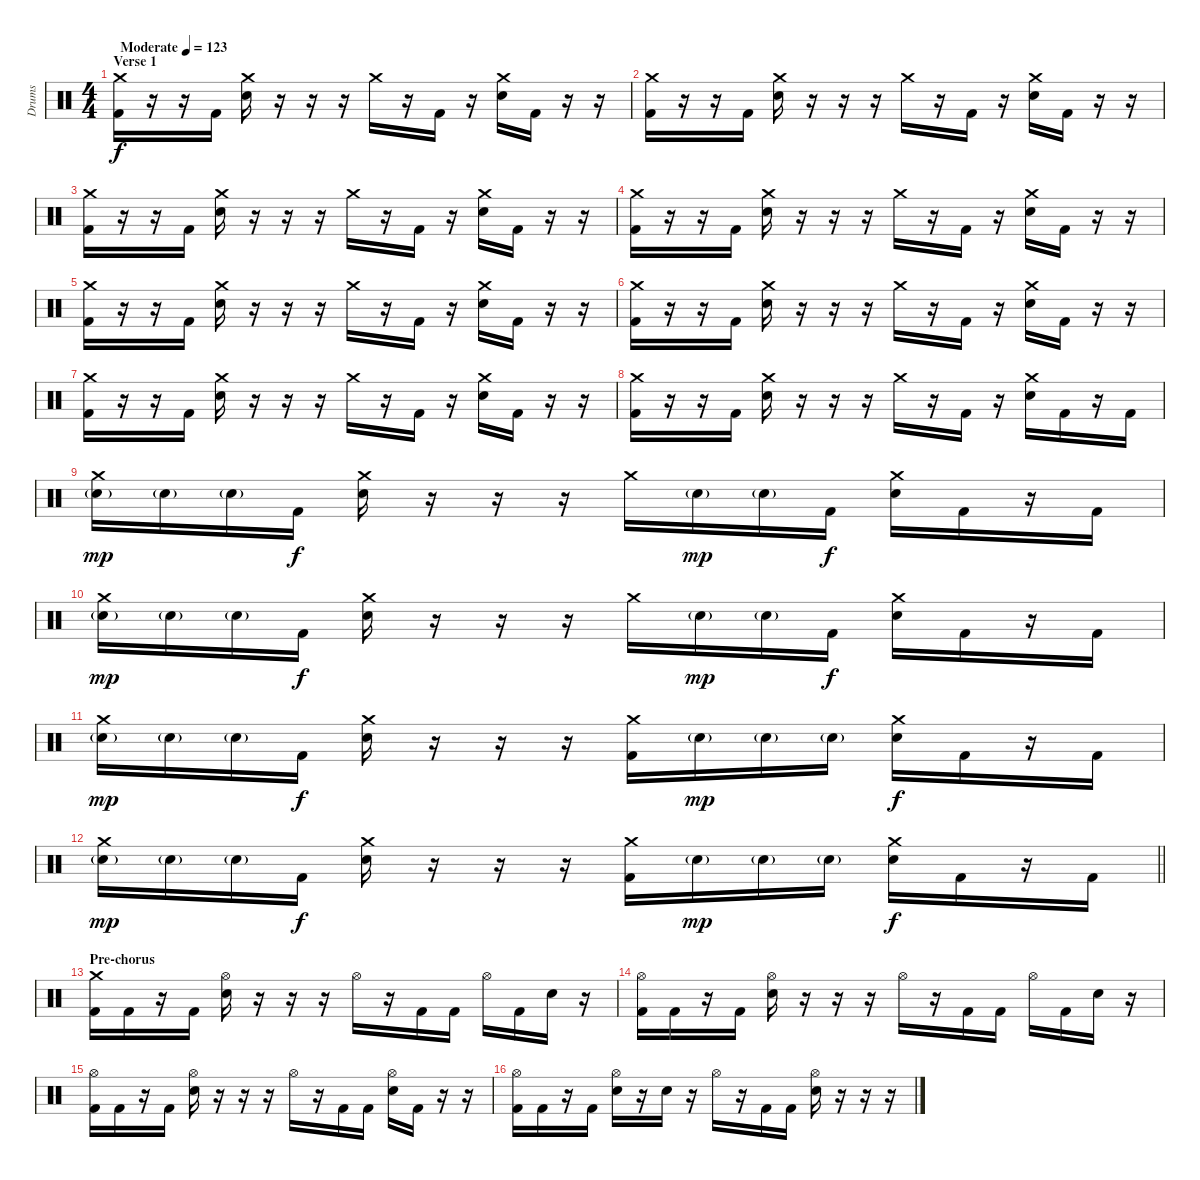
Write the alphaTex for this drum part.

\track ("Drums" "Drums") {instrument percussion}
\staff {score}
\articulation defaults
\ts (4 4)
\section ("" "Verse 1")
\tempo (123 "Moderate")
\clef neutral
\ks c
("Crash medium (hit)" "Kick (hit) 2").16{dy f} r.16 r.16 "Kick (hit) 2".16 ("Crash medium (hit)" "Electric Snare (hit)").16 r.16 r.16 r.16 "Crash medium (hit)".16 r.16 "Kick (hit) 2".16 r.16 ("Crash medium (hit)" "Electric Snare (hit)").16 "Kick (hit) 2".16 r.16 r.16 |
("Crash medium (hit)" "Kick (hit) 2").16 r.16 r.16 "Kick (hit) 2".16 ("Crash medium (hit)" "Electric Snare (hit)").16 r.16 r.16 r.16 "Crash medium (hit)".16 r.16 "Kick (hit) 2".16 r.16 ("Crash medium (hit)" "Electric Snare (hit)").16 "Kick (hit) 2".16 r.16 r.16 |
("Crash medium (hit)" "Kick (hit) 2").16 r.16 r.16 "Kick (hit) 2".16 ("Crash medium (hit)" "Electric Snare (hit)").16 r.16 r.16 r.16 "Crash medium (hit)".16 r.16 "Kick (hit) 2".16 r.16 ("Crash medium (hit)" "Electric Snare (hit)").16 "Kick (hit) 2".16 r.16 r.16 |
("Crash medium (hit)" "Kick (hit) 2").16 r.16 r.16 "Kick (hit) 2".16 ("Crash medium (hit)" "Electric Snare (hit)").16 r.16 r.16 r.16 "Crash medium (hit)".16 r.16 "Kick (hit) 2".16 r.16 ("Crash medium (hit)" "Electric Snare (hit)").16 "Kick (hit) 2".16 r.16 r.16 |
("Crash medium (hit)" "Kick (hit) 2").16 r.16 r.16 "Kick (hit) 2".16 ("Crash medium (hit)" "Electric Snare (hit)").16 r.16 r.16 r.16 "Crash medium (hit)".16 r.16 "Kick (hit) 2".16 r.16 ("Crash medium (hit)" "Electric Snare (hit)").16 "Kick (hit) 2".16 r.16 r.16 |
("Crash medium (hit)" "Kick (hit) 2").16 r.16 r.16 "Kick (hit) 2".16 ("Crash medium (hit)" "Electric Snare (hit)").16 r.16 r.16 r.16 "Crash medium (hit)".16 r.16 "Kick (hit) 2".16 r.16 ("Crash medium (hit)" "Electric Snare (hit)").16 "Kick (hit) 2".16 r.16 r.16 |
("Crash medium (hit)" "Kick (hit) 2").16 r.16 r.16 "Kick (hit) 2".16 ("Crash medium (hit)" "Electric Snare (hit)").16 r.16 r.16 r.16 "Crash medium (hit)".16 r.16 "Kick (hit) 2".16 r.16 ("Crash medium (hit)" "Electric Snare (hit)").16 "Kick (hit) 2".16 r.16 r.16 |
("Crash medium (hit)" "Kick (hit) 2").16 r.16 r.16 "Kick (hit) 2".16 ("Crash medium (hit)" "Electric Snare (hit)").16 r.16 r.16 r.16 "Crash medium (hit)".16 r.16 "Kick (hit) 2".16 r.16 ("Crash medium (hit)" "Electric Snare (hit)").16 "Kick (hit) 2".16 r.16 "Kick (hit) 2".16 |
("Crash medium (hit)" "Electric Snare (hit)"{g}).16{dy mp} "Electric Snare (hit)"{g}.16 "Electric Snare (hit)"{g}.16 "Kick (hit) 2".16{dy f} ("Crash medium (hit)" "Electric Snare (hit)").16 r.16 r.16 r.16 "Crash medium (hit)".16 "Electric Snare (hit)"{g}.16{dy mp} "Electric Snare (hit)"{g}.16 "Kick (hit) 2".16{dy f} ("Crash medium (hit)" "Electric Snare (hit)").16 "Kick (hit) 2".16 r.16 "Kick (hit) 2".16 |
("Crash medium (hit)" "Electric Snare (hit)"{g}).16{dy mp} "Electric Snare (hit)"{g}.16 "Electric Snare (hit)"{g}.16 "Kick (hit) 2".16{dy f} ("Crash medium (hit)" "Electric Snare (hit)").16 r.16 r.16 r.16 "Crash medium (hit)".16 "Electric Snare (hit)"{g}.16{dy mp} "Electric Snare (hit)"{g}.16 "Kick (hit) 2".16{dy f} ("Crash medium (hit)" "Electric Snare (hit)").16 "Kick (hit) 2".16 r.16 "Kick (hit) 2".16 |
("Crash medium (hit)" "Electric Snare (hit)"{g}).16{dy mp} "Electric Snare (hit)"{g}.16 "Electric Snare (hit)"{g}.16 "Kick (hit) 2".16{dy f} ("Crash medium (hit)" "Electric Snare (hit)").16 r.16 r.16 r.16 ("Crash medium (hit)" "Kick (hit) 2").16 "Electric Snare (hit)"{g}.16{dy mp} "Electric Snare (hit)"{g}.16 "Electric Snare (hit)"{g}.16 ("Crash medium (hit)" "Electric Snare (hit)").16{dy f} "Kick (hit) 2".16 r.16 "Kick (hit) 2".16 |
\barLineRight lightlight
("Crash medium (hit)" "Electric Snare (hit)"{g}).16{dy mp} "Electric Snare (hit)"{g}.16 "Electric Snare (hit)"{g}.16 "Kick (hit) 2".16{dy f} ("Crash medium (hit)" "Electric Snare (hit)").16 r.16 r.16 r.16 ("Crash medium (hit)" "Kick (hit) 2").16 "Electric Snare (hit)"{g}.16{dy mp} "Electric Snare (hit)"{g}.16 "Electric Snare (hit)"{g}.16 ("Crash medium (hit)" "Electric Snare (hit)").16{dy f} "Kick (hit) 2".16 r.16 "Kick (hit) 2".16 |
\section ("" "Pre-chorus")
("Crash medium (hit)" "Kick (hit) 2").16 "Kick (hit) 2".16 r.16 "Kick (hit) 2".16 ("Hi-Hat (open)" "Electric Snare (hit)").16 r.16 r.16 r.16 "Hi-Hat (open)".16 r.16 "Kick (hit) 2".16 "Kick (hit) 2".16 "Hi-Hat (open)".16 "Kick (hit) 2".16 "Electric Snare (hit)".16 r.16 |
("Hi-Hat (open)" "Kick (hit) 2").16 "Kick (hit) 2".16 r.16 "Kick (hit) 2".16 ("Hi-Hat (open)" "Electric Snare (hit)").16 r.16 r.16 r.16 "Hi-Hat (open)".16 r.16 "Kick (hit) 2".16 "Kick (hit) 2".16 "Hi-Hat (open)".16 "Kick (hit) 2".16 "Electric Snare (hit)".16 r.16 |
("Hi-Hat (open)" "Kick (hit) 2").16 "Kick (hit) 2".16 r.16 "Kick (hit) 2".16 ("Hi-Hat (open)" "Electric Snare (hit)").16 r.16 r.16 r.16 "Hi-Hat (open)".16 r.16 "Kick (hit) 2".16 "Kick (hit) 2".16 ("Hi-Hat (open)" "Electric Snare (hit)").16 "Kick (hit) 2".16 r.16 r.16 |
("Hi-Hat (open)" "Kick (hit) 2").16 "Kick (hit) 2".16 r.16 "Kick (hit) 2".16 ("Hi-Hat (open)" "Electric Snare (hit)").16 r.16 "Electric Snare (hit)".16 r.16 "Hi-Hat (open)".16 r.16 "Kick (hit) 2".16 "Kick (hit) 2".16 ("Hi-Hat (open)" "Electric Snare (hit)").16 r.16 r.16 r.16
